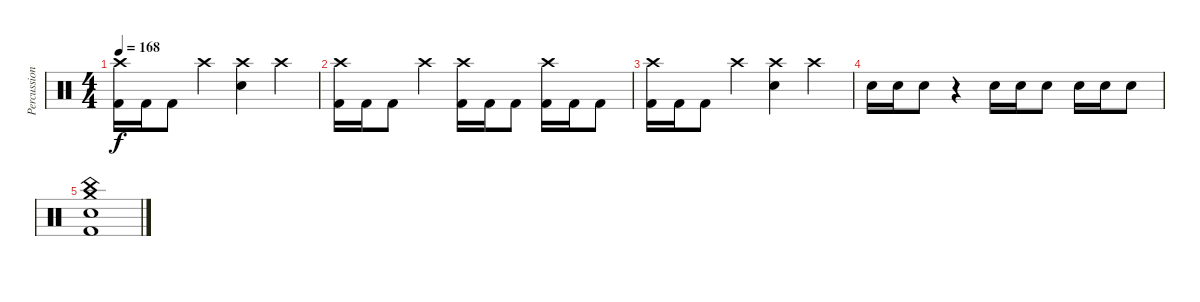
\track ("Percussion" "Percussion") {instrument percussion}
\staff {score}
\articulation defaults
\ts (4 4)
\tempo 168
\clef neutral
\ks c
("Crash high (hit)" "Kick (hit) 2").16{dy f} "Kick (hit) 2".16 "Kick (hit) 2".8 "Crash high (hit)".4 ("Crash high (hit)" "Electric Snare (hit)").4 "Crash high (hit)".4 |
("Crash high (hit)" "Kick (hit) 2").16 "Kick (hit) 2".16 "Kick (hit) 2".8 "Crash high (hit)".4 ("Crash high (hit)" "Kick (hit) 2").16 "Kick (hit) 2".16 "Kick (hit) 2".8 ("Crash high (hit)" "Kick (hit) 2").16 "Kick (hit) 2".16 "Kick (hit) 2".8 |
("Crash high (hit)" "Kick (hit) 2").16 "Kick (hit) 2".16 "Kick (hit) 2".8 "Crash high (hit)".4 ("Crash high (hit)" "Electric Snare (hit)").4 "Crash high (hit)".4 |
"Electric Snare (hit)".16 "Electric Snare (hit)".16 "Electric Snare (hit)".8 r.4 "Electric Snare (hit)".16 "Electric Snare (hit)".16 "Electric Snare (hit)".8 "Electric Snare (hit)".16 "Electric Snare (hit)".16 "Electric Snare (hit)".8 |
("China (hit)" "Crash medium (hit)" "Electric Snare (hit)" "Kick (hit) 2").1
